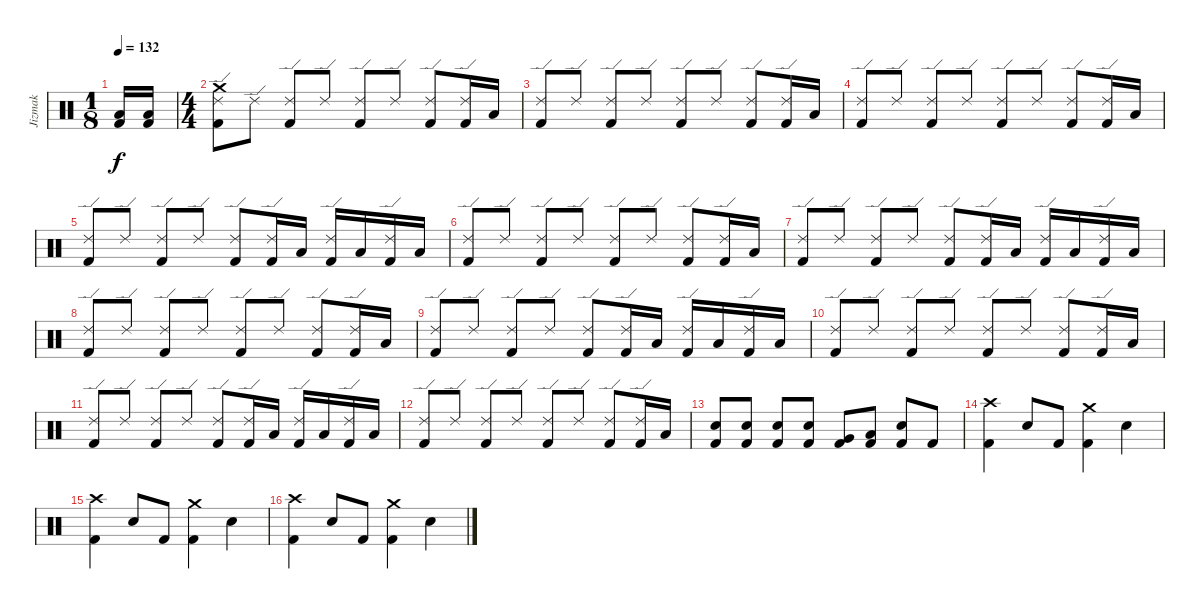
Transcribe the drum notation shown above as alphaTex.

\track ("Jizmak" "Jizmak") {instrument percussion}
\staff {score}
\articulation defaults
\ts (1 8)
\tempo 132
\clef neutral
\ks c
("Kick (hit) 2" "Low Floor Tom (hit)").16{dy f} ("Kick (hit) 2" "Low Floor Tom (hit)").16 |
\ts (4 4)
("Ride (edge) 2" "Kick (hit) 2" "Crash medium (hit)").8 "Ride (edge) 2".8 ("Ride (edge) 2" "Kick (hit) 2").8 "Ride (edge) 2".8 ("Ride (edge) 2" "Kick (hit) 2").8 "Ride (edge) 2".8 ("Ride (edge) 2" "Kick (hit) 2").8 ("Ride (edge) 2" "Kick (hit) 2").16 "Low Floor Tom (hit)".16 |
("Ride (edge) 2" "Kick (hit) 2").8 "Ride (edge) 2".8 ("Ride (edge) 2" "Kick (hit) 2").8 "Ride (edge) 2".8 ("Ride (edge) 2" "Kick (hit) 2").8 "Ride (edge) 2".8 ("Ride (edge) 2" "Kick (hit) 2").8 ("Ride (edge) 2" "Kick (hit) 2").16 "Low Floor Tom (hit)".16 |
("Ride (edge) 2" "Kick (hit) 2").8 "Ride (edge) 2".8 ("Ride (edge) 2" "Kick (hit) 2").8 "Ride (edge) 2".8 ("Ride (edge) 2" "Kick (hit) 2").8 "Ride (edge) 2".8 ("Ride (edge) 2" "Kick (hit) 2").8 ("Ride (edge) 2" "Kick (hit) 2").16 "Low Floor Tom (hit)".16 |
("Ride (edge) 2" "Kick (hit) 2").8 "Ride (edge) 2".8 ("Ride (edge) 2" "Kick (hit) 2").8 "Ride (edge) 2".8 ("Ride (edge) 2" "Kick (hit) 2").8 ("Ride (edge) 2" "Kick (hit) 2").16 "Low Floor Tom (hit)".16 ("Ride (edge) 2" "Kick (hit) 2").16 "Low Floor Tom (hit)".16 ("Ride (edge) 2" "Kick (hit) 2").16 "Low Floor Tom (hit)".16 |
("Ride (edge) 2" "Kick (hit) 2").8 "Ride (edge) 2".8 ("Ride (edge) 2" "Kick (hit) 2").8 "Ride (edge) 2".8 ("Ride (edge) 2" "Kick (hit) 2").8 "Ride (edge) 2".8 ("Ride (edge) 2" "Kick (hit) 2").8 ("Ride (edge) 2" "Kick (hit) 2").16 "Low Floor Tom (hit)".16 |
("Ride (edge) 2" "Kick (hit) 2").8 "Ride (edge) 2".8 ("Ride (edge) 2" "Kick (hit) 2").8 "Ride (edge) 2".8 ("Ride (edge) 2" "Kick (hit) 2").8 ("Ride (edge) 2" "Kick (hit) 2").16 "Low Floor Tom (hit)".16 ("Ride (edge) 2" "Kick (hit) 2").16 "Low Floor Tom (hit)".16 ("Ride (edge) 2" "Kick (hit) 2").16 "Low Floor Tom (hit)".16 |
("Ride (edge) 2" "Kick (hit) 2").8 "Ride (edge) 2".8 ("Ride (edge) 2" "Kick (hit) 2").8 "Ride (edge) 2".8 ("Ride (edge) 2" "Kick (hit) 2").8 "Ride (edge) 2".8 ("Ride (edge) 2" "Kick (hit) 2").8 ("Ride (edge) 2" "Kick (hit) 2").16 "Low Floor Tom (hit)".16 |
("Ride (edge) 2" "Kick (hit) 2").8 "Ride (edge) 2".8 ("Ride (edge) 2" "Kick (hit) 2").8 "Ride (edge) 2".8 ("Ride (edge) 2" "Kick (hit) 2").8 ("Ride (edge) 2" "Kick (hit) 2").16 "Low Floor Tom (hit)".16 ("Ride (edge) 2" "Kick (hit) 2").16 "Low Floor Tom (hit)".16 ("Ride (edge) 2" "Kick (hit) 2").16 "Low Floor Tom (hit)".16 |
("Ride (edge) 2" "Kick (hit) 2").8 "Ride (edge) 2".8 ("Ride (edge) 2" "Kick (hit) 2").8 "Ride (edge) 2".8 ("Ride (edge) 2" "Kick (hit) 2").8 "Ride (edge) 2".8 ("Ride (edge) 2" "Kick (hit) 2").8 ("Ride (edge) 2" "Kick (hit) 2").16 "Low Floor Tom (hit)".16 |
("Ride (edge) 2" "Kick (hit) 2").8 "Ride (edge) 2".8 ("Ride (edge) 2" "Kick (hit) 2").8 "Ride (edge) 2".8 ("Ride (edge) 2" "Kick (hit) 2").8 ("Ride (edge) 2" "Kick (hit) 2").16 "Low Floor Tom (hit)".16 ("Ride (edge) 2" "Kick (hit) 2").16 "Low Floor Tom (hit)".16 ("Ride (edge) 2" "Kick (hit) 2").16 "Low Floor Tom (hit)".16 |
("Ride (edge) 2" "Kick (hit) 2").8 "Ride (edge) 2".8 ("Ride (edge) 2" "Kick (hit) 2").8 "Ride (edge) 2".8 ("Ride (edge) 2" "Kick (hit) 2").8 "Ride (edge) 2".8 ("Ride (edge) 2" "Kick (hit) 2").8 ("Ride (edge) 2" "Kick (hit) 2").16 "Low Floor Tom (hit)".16 |
("Snare (hit) 2" "Kick (hit) 2").8 ("Snare (hit) 2" "Kick (hit) 2").8 ("Snare (hit) 2" "Kick (hit) 2").8 ("Snare (hit) 2" "Kick (hit) 2").8 ("Very Low Tom (hit)" "Kick (hit) 2").8 ("Low Floor Tom (hit)" "Kick (hit) 2").8 ("Snare (hit) 2" "Kick (hit) 2").8 "Kick (hit) 2".8 |
("Crash high (hit)" "Kick (hit) 2").4 "Snare (hit) 2".8 "Kick (hit) 2".8 ("Crash medium (hit)" "Kick (hit) 2").4 "Snare (hit) 2".4 |
("Crash high (hit)" "Kick (hit) 2").4 "Snare (hit) 2".8 "Kick (hit) 2".8 ("Crash medium (hit)" "Kick (hit) 2").4 "Snare (hit) 2".4 |
("Crash high (hit)" "Kick (hit) 2").4 "Snare (hit) 2".8 "Kick (hit) 2".8 ("Crash medium (hit)" "Kick (hit) 2").4 "Snare (hit) 2".4
